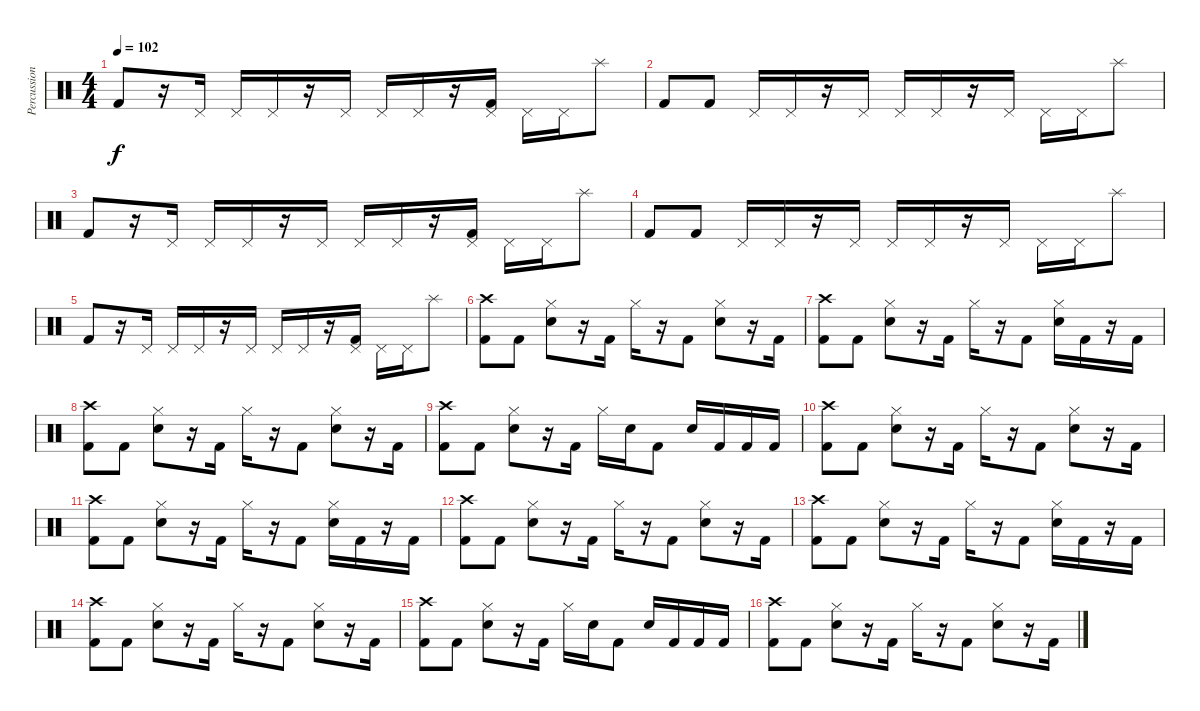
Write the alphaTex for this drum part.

\track ("Percussions" "Percussion") {instrument percussion}
\staff {score}
\articulation defaults
\ts (4 4)
\tempo 102
\clef neutral
\ks c "Kick (hit) 2".8{dy f}
r.16 "Pedal Hi-Hat (hit)".16 "Pedal Hi-Hat (hit)".16 "Pedal Hi-Hat (hit)".16 r.16 "Pedal Hi-Hat (hit)".16 "Pedal Hi-Hat (hit)".16 "Pedal Hi-Hat (hit)".16 r.16 ("Pedal Hi-Hat (hit)" "Kick (hit) 2").16 "Pedal Hi-Hat (hit)".16 "Pedal Hi-Hat (hit)".16 "Splash (hit)".8 |
"Kick (hit) 2".8 "Kick (hit) 2".8 "Pedal Hi-Hat (hit)".16 "Pedal Hi-Hat (hit)".16 r.16 "Pedal Hi-Hat (hit)".16 "Pedal Hi-Hat (hit)".16 "Pedal Hi-Hat (hit)".16 r.16 "Pedal Hi-Hat (hit)".16 "Pedal Hi-Hat (hit)".16 "Pedal Hi-Hat (hit)".16 "Splash (hit)".8 |
"Kick (hit) 2".8 r.16 "Pedal Hi-Hat (hit)".16 "Pedal Hi-Hat (hit)".16 "Pedal Hi-Hat (hit)".16 r.16 "Pedal Hi-Hat (hit)".16 "Pedal Hi-Hat (hit)".16 "Pedal Hi-Hat (hit)".16 r.16 ("Pedal Hi-Hat (hit)" "Kick (hit) 2").16 "Pedal Hi-Hat (hit)".16 "Pedal Hi-Hat (hit)".16 "Splash (hit)".8 |
"Kick (hit) 2".8 "Kick (hit) 2".8 "Pedal Hi-Hat (hit)".16 "Pedal Hi-Hat (hit)".16 r.16 "Pedal Hi-Hat (hit)".16 "Pedal Hi-Hat (hit)".16 "Pedal Hi-Hat (hit)".16 r.16 "Pedal Hi-Hat (hit)".16 "Pedal Hi-Hat (hit)".16 "Pedal Hi-Hat (hit)".16 "Splash (hit)".8 |
"Kick (hit) 2".8 r.16 "Pedal Hi-Hat (hit)".16 "Pedal Hi-Hat (hit)".16 "Pedal Hi-Hat (hit)".16 r.16 "Pedal Hi-Hat (hit)".16 "Pedal Hi-Hat (hit)".16 "Pedal Hi-Hat (hit)".16 r.16 ("Pedal Hi-Hat (hit)" "Kick (hit) 2").16 "Pedal Hi-Hat (hit)".16 "Pedal Hi-Hat (hit)".16 "Splash (hit)".8 |
("Crash high (hit)" "Kick (hit) 2").8{volume 16} "Kick (hit) 2".8 ("Snare (hit) 2" "Hi-Hat (closed)").8 r.16 "Kick (hit) 2".16 "Hi-Hat (closed)".16 r.16 "Kick (hit) 2".8 ("Snare (hit) 2" "Hi-Hat (closed)").8 r.16 "Kick (hit) 2".16 |
("Crash high (hit)" "Kick (hit) 2").8 "Kick (hit) 2".8 ("Snare (hit) 2" "Hi-Hat (closed)").8 r.16 "Kick (hit) 2".16 "Hi-Hat (closed)".16 r.16 "Kick (hit) 2".8 ("Snare (hit) 2" "Hi-Hat (closed)").16 "Kick (hit) 2".16 r.16 "Kick (hit) 2".16 |
("Crash high (hit)" "Kick (hit) 2").8 "Kick (hit) 2".8 ("Snare (hit) 2" "Hi-Hat (closed)").8 r.16 "Kick (hit) 2".16 "Hi-Hat (closed)".16 r.16 "Kick (hit) 2".8 ("Snare (hit) 2" "Hi-Hat (closed)").8 r.16 "Kick (hit) 2".16 |
("Crash high (hit)" "Kick (hit) 2").8 "Kick (hit) 2".8 ("Snare (hit) 2" "Hi-Hat (closed)").8 r.16 "Kick (hit) 2".16 "Hi-Hat (closed)".16 "Snare (hit) 2".16 "Kick (hit) 2".8 "Snare (hit) 2".16 "Kick (hit) 2".16 "Kick (hit) 2".16 "Kick (hit) 2".16 |
("Crash high (hit)" "Kick (hit) 2").8 "Kick (hit) 2".8 ("Snare (hit) 2" "Hi-Hat (closed)").8 r.16 "Kick (hit) 2".16 "Hi-Hat (closed)".16 r.16 "Kick (hit) 2".8 ("Snare (hit) 2" "Hi-Hat (closed)").8 r.16 "Kick (hit) 2".16 |
("Crash high (hit)" "Kick (hit) 2").8 "Kick (hit) 2".8 ("Snare (hit) 2" "Hi-Hat (closed)").8 r.16 "Kick (hit) 2".16 "Hi-Hat (closed)".16 r.16 "Kick (hit) 2".8 ("Snare (hit) 2" "Hi-Hat (closed)").16 "Kick (hit) 2".16 r.16 "Kick (hit) 2".16 |
("Crash high (hit)" "Kick (hit) 2").8 "Kick (hit) 2".8 ("Snare (hit) 2" "Hi-Hat (closed)").8 r.16 "Kick (hit) 2".16 "Hi-Hat (closed)".16 r.16 "Kick (hit) 2".8 ("Snare (hit) 2" "Hi-Hat (closed)").8 r.16 "Kick (hit) 2".16 |
("Crash high (hit)" "Kick (hit) 2").8 "Kick (hit) 2".8 ("Snare (hit) 2" "Hi-Hat (closed)").8 r.16 "Kick (hit) 2".16 "Hi-Hat (closed)".16 r.16 "Kick (hit) 2".8 ("Snare (hit) 2" "Hi-Hat (closed)").16 "Kick (hit) 2".16 r.16 "Kick (hit) 2".16 |
("Crash high (hit)" "Kick (hit) 2").8 "Kick (hit) 2".8 ("Snare (hit) 2" "Hi-Hat (closed)").8 r.16 "Kick (hit) 2".16 "Hi-Hat (closed)".16 r.16 "Kick (hit) 2".8 ("Snare (hit) 2" "Hi-Hat (closed)").8 r.16 "Kick (hit) 2".16 |
("Crash high (hit)" "Kick (hit) 2").8 "Kick (hit) 2".8 ("Snare (hit) 2" "Hi-Hat (closed)").8 r.16 "Kick (hit) 2".16 "Hi-Hat (closed)".16 "Snare (hit) 2".16 "Kick (hit) 2".8 "Snare (hit) 2".16 "Kick (hit) 2".16 "Kick (hit) 2".16 "Kick (hit) 2".16 |
("Crash high (hit)" "Kick (hit) 2").8 "Kick (hit) 2".8 ("Snare (hit) 2" "Hi-Hat (closed)").8 r.16 "Kick (hit) 2".16 "Hi-Hat (closed)".16 r.16 "Kick (hit) 2".8 ("Snare (hit) 2" "Hi-Hat (closed)").8 r.16 "Kick (hit) 2".16
